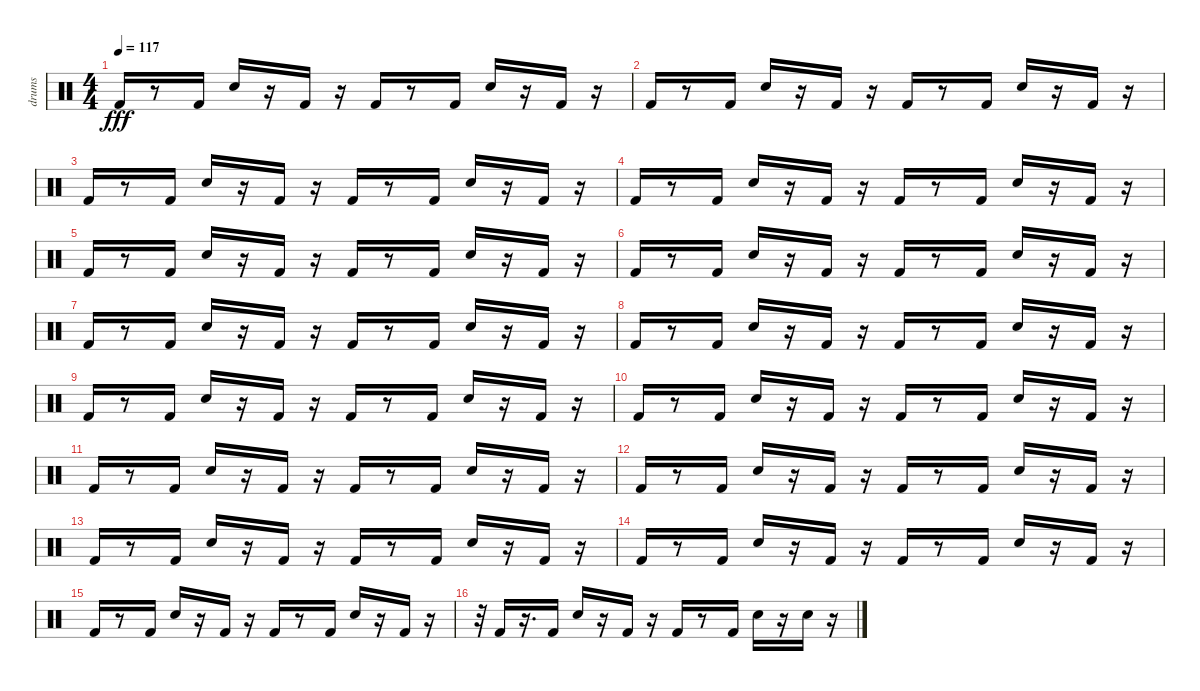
\track ("drums" "drums") {instrument percussion}
\staff {score}
\articulation defaults
\ts (4 4)
\tempo 117
\clef neutral
\ks c "Kick (hit) 2".16{dy fff}
r.8 "Kick (hit) 2".16 "Snare (hit) 2".16 r.16 "Kick (hit) 2".16 r.16 "Kick (hit) 2".16 r.8 "Kick (hit) 2".16 "Snare (hit) 2".16 r.16 "Kick (hit) 2".16 r.16 |
"Kick (hit) 2".16 r.8 "Kick (hit) 2".16 "Snare (hit) 2".16 r.16 "Kick (hit) 2".16 r.16 "Kick (hit) 2".16 r.8 "Kick (hit) 2".16 "Snare (hit) 2".16 r.16 "Kick (hit) 2".16 r.16 |
"Kick (hit) 2".16 r.8 "Kick (hit) 2".16 "Snare (hit) 2".16 r.16 "Kick (hit) 2".16 r.16 "Kick (hit) 2".16 r.8 "Kick (hit) 2".16 "Snare (hit) 2".16 r.16 "Kick (hit) 2".16 r.16 |
"Kick (hit) 2".16 r.8 "Kick (hit) 2".16 "Snare (hit) 2".16 r.16 "Kick (hit) 2".16 r.16 "Kick (hit) 2".16 r.8 "Kick (hit) 2".16 "Snare (hit) 2".16 r.16 "Kick (hit) 2".16 r.16 |
"Kick (hit) 2".16 r.8 "Kick (hit) 2".16 "Snare (hit) 2".16 r.16 "Kick (hit) 2".16 r.16 "Kick (hit) 2".16 r.8 "Kick (hit) 2".16 "Snare (hit) 2".16 r.16 "Kick (hit) 2".16 r.16 |
"Kick (hit) 2".16 r.8 "Kick (hit) 2".16 "Snare (hit) 2".16 r.16 "Kick (hit) 2".16 r.16 "Kick (hit) 2".16 r.8 "Kick (hit) 2".16 "Snare (hit) 2".16 r.16 "Kick (hit) 2".16 r.16 |
"Kick (hit) 2".16 r.8 "Kick (hit) 2".16 "Snare (hit) 2".16 r.16 "Kick (hit) 2".16 r.16 "Kick (hit) 2".16 r.8 "Kick (hit) 2".16 "Snare (hit) 2".16 r.16 "Kick (hit) 2".16 r.16 |
"Kick (hit) 2".16 r.8 "Kick (hit) 2".16 "Snare (hit) 2".16 r.16 "Kick (hit) 2".16 r.16 "Kick (hit) 2".16 r.8 "Kick (hit) 2".16 "Snare (hit) 2".16 r.16 "Kick (hit) 2".16 r.16 |
"Kick (hit) 2".16 r.8 "Kick (hit) 2".16 "Snare (hit) 2".16 r.16 "Kick (hit) 2".16 r.16 "Kick (hit) 2".16 r.8 "Kick (hit) 2".16 "Snare (hit) 2".16 r.16 "Kick (hit) 2".16 r.16 |
"Kick (hit) 2".16 r.8 "Kick (hit) 2".16 "Snare (hit) 2".16 r.16 "Kick (hit) 2".16 r.16 "Kick (hit) 2".16 r.8 "Kick (hit) 2".16 "Snare (hit) 2".16 r.16 "Kick (hit) 2".16 r.16 |
"Kick (hit) 2".16 r.8 "Kick (hit) 2".16 "Snare (hit) 2".16 r.16 "Kick (hit) 2".16 r.16 "Kick (hit) 2".16 r.8 "Kick (hit) 2".16 "Snare (hit) 2".16 r.16 "Kick (hit) 2".16 r.16 |
"Kick (hit) 2".16 r.8 "Kick (hit) 2".16 "Snare (hit) 2".16 r.16 "Kick (hit) 2".16 r.16 "Kick (hit) 2".16 r.8 "Kick (hit) 2".16 "Snare (hit) 2".16 r.16 "Kick (hit) 2".16 r.16 |
"Kick (hit) 2".16 r.8 "Kick (hit) 2".16 "Snare (hit) 2".16 r.16 "Kick (hit) 2".16 r.16 "Kick (hit) 2".16 r.8 "Kick (hit) 2".16 "Snare (hit) 2".16 r.16 "Kick (hit) 2".16 r.16 |
"Kick (hit) 2".16 r.8 "Kick (hit) 2".16 "Snare (hit) 2".16 r.16 "Kick (hit) 2".16 r.16 "Kick (hit) 2".16 r.8 "Kick (hit) 2".16 "Snare (hit) 2".16 r.16 "Kick (hit) 2".16 r.16 |
"Kick (hit) 2".16 r.8 "Kick (hit) 2".16 "Snare (hit) 2".16 r.16 "Kick (hit) 2".16 r.16 "Kick (hit) 2".16 r.8 "Kick (hit) 2".16 "Snare (hit) 2".16 r.16 "Kick (hit) 2".16 r.16 |
r.32 "Kick (hit) 2".16 r.16{d} "Kick (hit) 2".16 "Snare (hit) 2".16 r.16 "Kick (hit) 2".16 r.16 "Kick (hit) 2".16 r.8 "Kick (hit) 2".16 "Snare (hit) 2".16 r.16 "Snare (hit) 2".16 r.16
